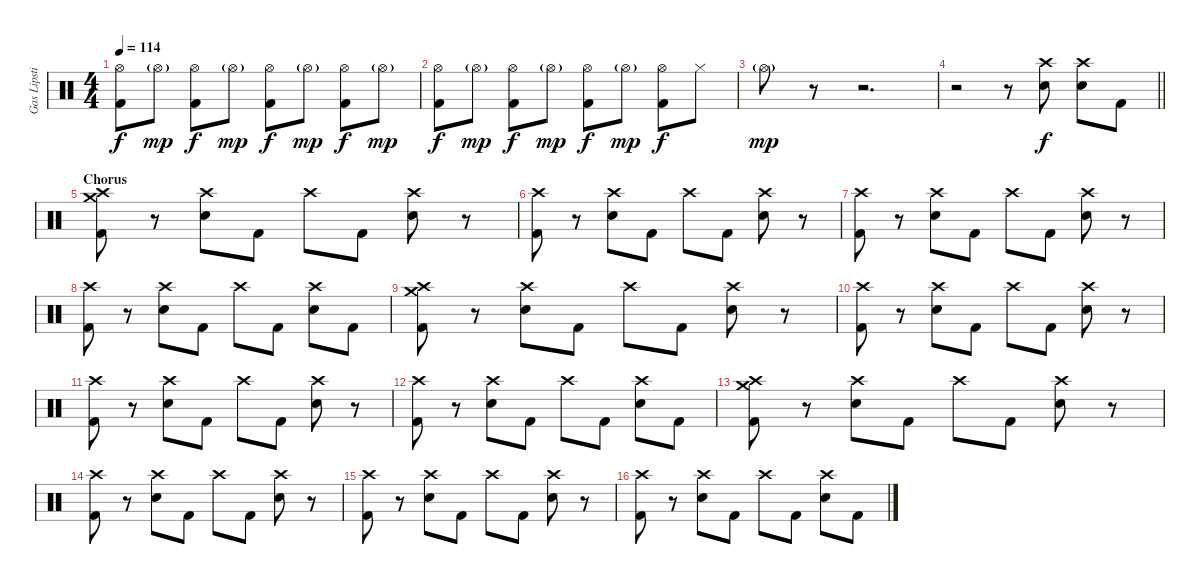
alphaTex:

\track ("Gas Lipstick (Drums)" "Gas Lipsti") {instrument percussion}
\staff {score}
\articulation defaults
\ts (4 4)
\tempo 114
\clef neutral
\ks c
("Hi-Hat (open)" "Kick (hit) 2").8{dy f} "Hi-Hat (open)"{g}.8{dy mp} ("Hi-Hat (open)" "Kick (hit) 2").8{dy f} "Hi-Hat (open)"{g}.8{dy mp} ("Hi-Hat (open)" "Kick (hit) 2").8{dy f} "Hi-Hat (open)"{g}.8{dy mp} ("Hi-Hat (open)" "Kick (hit) 2").8{dy f} "Hi-Hat (open)"{g}.8{dy mp} |
("Hi-Hat (open)" "Kick (hit) 2").8{dy f} "Hi-Hat (open)"{g}.8{dy mp} ("Hi-Hat (open)" "Kick (hit) 2").8{dy f} "Hi-Hat (open)"{g}.8{dy mp} ("Hi-Hat (open)" "Kick (hit) 2").8{dy f} "Hi-Hat (open)"{g}.8{dy mp} ("Hi-Hat (open)" "Kick (hit) 2").8{dy f} "Hi-Hat (closed)".8 |
"Hi-Hat (open)"{g}.8{dy mp} r.8 r.2{d} |
\barLineRight lightlight
r.2 r.8 ("Crash high (hit)" "Snare (hit) 2").8{dy f} ("Crash high (hit)" "Snare (hit) 2").8 "Kick (hit) 2".8 |
\section ("" "Chorus")
("Crash medium (hit)" "Crash high (hit)" "Kick (hit) 2").8 r.8 ("Crash high (hit)" "Snare (hit) 2").8 "Kick (hit) 2".8 "Crash high (hit)".8 "Kick (hit) 2".8 ("Crash high (hit)" "Snare (hit) 2").8 r.8 |
("Crash high (hit)" "Kick (hit) 2").8 r.8 ("Crash high (hit)" "Snare (hit) 2").8 "Kick (hit) 2".8 "Crash high (hit)".8 "Kick (hit) 2".8 ("Crash high (hit)" "Snare (hit) 2").8 r.8 |
("Crash high (hit)" "Kick (hit) 2").8 r.8 ("Crash high (hit)" "Snare (hit) 2").8 "Kick (hit) 2".8 "Crash high (hit)".8 "Kick (hit) 2".8 ("Crash high (hit)" "Snare (hit) 2").8 r.8 |
("Crash high (hit)" "Kick (hit) 2").8 r.8 ("Crash high (hit)" "Snare (hit) 2").8 "Kick (hit) 2".8 "Crash high (hit)".8 "Kick (hit) 2".8 ("Crash high (hit)" "Snare (hit) 2").8 "Kick (hit) 2".8 |
("Crash medium (hit)" "Crash high (hit)" "Kick (hit) 2").8 r.8 ("Crash high (hit)" "Snare (hit) 2").8 "Kick (hit) 2".8 "Crash high (hit)".8 "Kick (hit) 2".8 ("Crash high (hit)" "Snare (hit) 2").8 r.8 |
("Crash high (hit)" "Kick (hit) 2").8 r.8 ("Crash high (hit)" "Snare (hit) 2").8 "Kick (hit) 2".8 "Crash high (hit)".8 "Kick (hit) 2".8 ("Crash high (hit)" "Snare (hit) 2").8 r.8 |
("Crash high (hit)" "Kick (hit) 2").8 r.8 ("Crash high (hit)" "Snare (hit) 2").8 "Kick (hit) 2".8 "Crash high (hit)".8 "Kick (hit) 2".8 ("Crash high (hit)" "Snare (hit) 2").8 r.8 |
("Crash high (hit)" "Kick (hit) 2").8 r.8 ("Crash high (hit)" "Snare (hit) 2").8 "Kick (hit) 2".8 "Crash high (hit)".8 "Kick (hit) 2".8 ("Crash high (hit)" "Snare (hit) 2").8 "Kick (hit) 2".8 |
("Crash medium (hit)" "Crash high (hit)" "Kick (hit) 2").8 r.8 ("Crash high (hit)" "Snare (hit) 2").8 "Kick (hit) 2".8 "Crash high (hit)".8 "Kick (hit) 2".8 ("Crash high (hit)" "Snare (hit) 2").8 r.8 |
("Crash high (hit)" "Kick (hit) 2").8 r.8 ("Crash high (hit)" "Snare (hit) 2").8 "Kick (hit) 2".8 "Crash high (hit)".8 "Kick (hit) 2".8 ("Crash high (hit)" "Snare (hit) 2").8 r.8 |
("Crash high (hit)" "Kick (hit) 2").8 r.8 ("Crash high (hit)" "Snare (hit) 2").8 "Kick (hit) 2".8 "Crash high (hit)".8 "Kick (hit) 2".8 ("Crash high (hit)" "Snare (hit) 2").8 r.8 |
("Crash high (hit)" "Kick (hit) 2").8 r.8 ("Crash high (hit)" "Snare (hit) 2").8 "Kick (hit) 2".8 "Crash high (hit)".8 "Kick (hit) 2".8 ("Crash high (hit)" "Snare (hit) 2").8 "Kick (hit) 2".8
